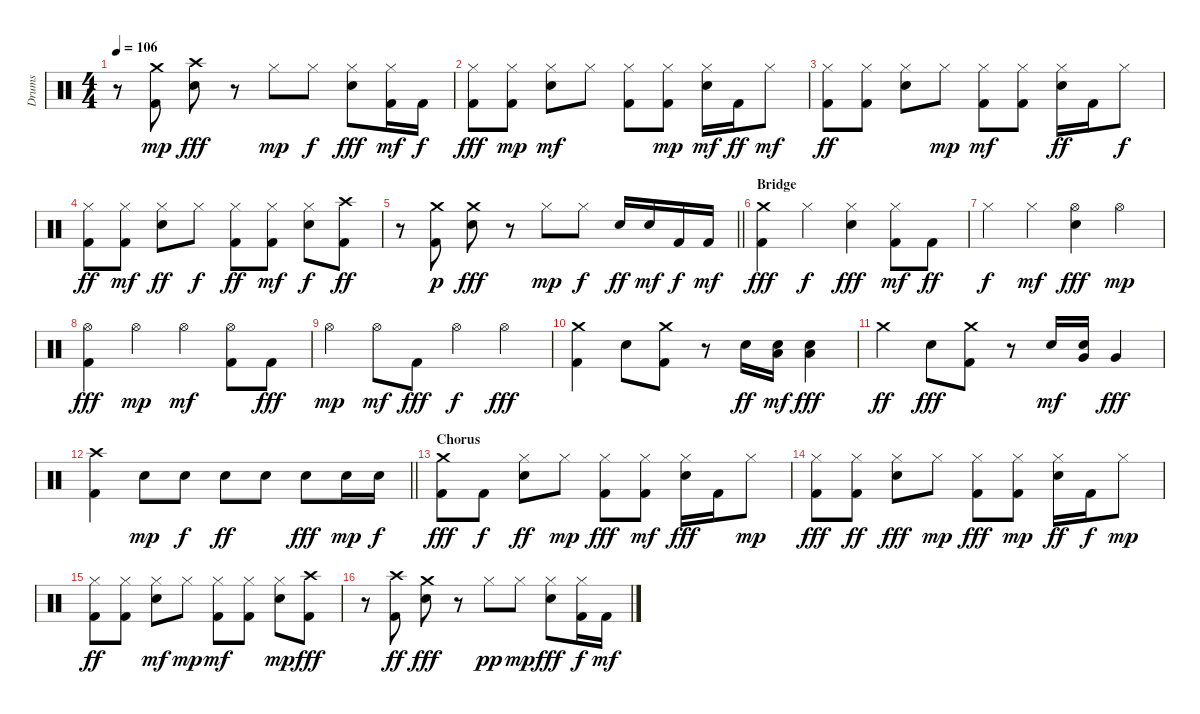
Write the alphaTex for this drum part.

\track ("Drums" "Drums") {instrument percussion}
\staff {score}
\articulation defaults
\ts (4 4)
\tempo 106
\clef neutral
\ks c
r.8{dy fff} ("Kick (hit) 2" "Crash medium (hit)").8{dy mp} ("Crash high (hit)" "Snare (hit) 2").8{dy fff} r.8 "Hi-Hat (closed)".8{dy mp} "Hi-Hat (closed)".8{dy f} ("Hi-Hat (closed)" "Snare (hit) 2").8{dy fff} ("Hi-Hat (closed)" "Kick (hit) 2").16{dy mf} "Kick (hit) 2".16{dy f} |
("Hi-Hat (closed)" "Kick (hit) 2").8{dy fff} ("Kick (hit) 2" "Hi-Hat (closed)").8{dy mp} ("Snare (hit) 2" "Hi-Hat (closed)").8{dy mf} "Hi-Hat (closed)".8 ("Kick (hit) 2" "Hi-Hat (closed)").8 ("Hi-Hat (closed)" "Kick (hit) 2").8{dy mp} ("Snare (hit) 2" "Hi-Hat (closed)").16{dy mf} "Kick (hit) 2".16{dy ff} "Hi-Hat (closed)".8{dy mf} |
("Hi-Hat (closed)" "Kick (hit) 2").8{dy ff} ("Hi-Hat (closed)" "Kick (hit) 2").8 ("Snare (hit) 2" "Hi-Hat (closed)").8 "Hi-Hat (closed)".8{dy mp} ("Kick (hit) 2" "Hi-Hat (closed)").8{dy mf} ("Kick (hit) 2" "Hi-Hat (closed)").8 ("Snare (hit) 2" "Hi-Hat (closed)").16{dy ff} "Kick (hit) 2".16 "Hi-Hat (closed)".8{dy f} |
("Kick (hit) 2" "Hi-Hat (closed)").8{dy ff} ("Kick (hit) 2" "Hi-Hat (closed)").8{dy mf} ("Snare (hit) 2" "Hi-Hat (closed)").8{dy ff} "Hi-Hat (closed)".8{dy f} ("Kick (hit) 2" "Hi-Hat (closed)").8{dy ff} ("Kick (hit) 2" "Hi-Hat (closed)").8{dy mf} ("Hi-Hat (closed)" "Snare (hit) 2").8{dy f} ("Kick (hit) 2" "Crash high (hit)").8{dy ff} |
\barLineRight lightlight
r.8 ("Kick (hit) 2" "Crash medium (hit)").8{dy p} ("Crash medium (hit)" "Snare (hit) 2").8{dy fff} r.8 "Hi-Hat (closed)".8{dy mp} "Hi-Hat (closed)".8{dy f} "Snare (hit) 2".16{dy ff} "Snare (hit) 2".16{dy mf} "Kick (hit) 2".16{dy f} "Kick (hit) 2".16{dy mf} |
\section ("" "Bridge")
("Crash medium (hit)" "Kick (hit) 2").4{dy fff} "Hi-Hat (closed)".4{dy f} ("Hi-Hat (closed)" "Snare (hit) 2").4{dy fff} ("Hi-Hat (closed)" "Kick (hit) 2").8{dy mf} "Kick (hit) 2".8{dy ff} |
"Hi-Hat (closed)".4{dy f} "Hi-Hat (closed)".4{dy mf} ("Hi-Hat (open)" "Snare (hit) 2").4{dy fff} "Hi-Hat (open)".4{dy mp} |
("Hi-Hat (open)" "Kick (hit) 2").4{dy fff} "Hi-Hat (open)".4{dy mp} "Hi-Hat (open)".4{dy mf} ("Hi-Hat (open)" "Kick (hit) 2").8 "Kick (hit) 2".8{dy fff} |
"Hi-Hat (open)".4{dy mp} "Hi-Hat (open)".8{dy mf} "Kick (hit) 2".8{dy fff} "Hi-Hat (open)".4{dy f} "Hi-Hat (open)".4{dy fff} |
("Crash medium (hit)" "Kick (hit) 2").4 "Snare (hit) 2".8 ("Crash medium (hit)" "Kick (hit) 2").8 r.8 "Snare (hit) 2".16{dy ff} ("Snare (hit) 2" "Low Floor Tom (hit)").16{dy mf} ("Snare (hit) 2" "Low Floor Tom (hit)").4{dy fff} |
"Crash medium (hit)".4{dy ff} "Snare (hit) 2".8{dy fff} ("Crash medium (hit)" "Kick (hit) 2").8 r.8 "Snare (hit) 2".16{dy mf} ("Snare (hit) 2" "Very Low Tom (hit)").16 "Very Low Tom (hit)".4{dy fff} |
\barLineRight lightlight
("Crash high (hit)" "Kick (hit) 2").4 "Snare (hit) 2".8{dy mp} "Snare (hit) 2".8{dy f} "Snare (hit) 2".8{dy ff} "Snare (hit) 2".8 "Snare (hit) 2".8{dy fff} "Snare (hit) 2".16{dy mp} "Snare (hit) 2".16{dy f} |
\section ("" "Chorus")
("Crash medium (hit)" "Kick (hit) 2").8{dy fff} "Kick (hit) 2".8{dy f} ("Hi-Hat (closed)" "Snare (hit) 2").8{dy ff} "Hi-Hat (closed)".8{dy mp} ("Hi-Hat (closed)" "Kick (hit) 2").8{dy fff} ("Hi-Hat (closed)" "Kick (hit) 2").8{dy mf} ("Hi-Hat (closed)" "Snare (hit) 2").16{dy fff} "Kick (hit) 2".16 "Hi-Hat (closed)".8{dy mp} |
("Hi-Hat (closed)" "Kick (hit) 2").8{dy fff} ("Hi-Hat (closed)" "Kick (hit) 2").8{dy ff} ("Hi-Hat (closed)" "Snare (hit) 2").8{dy fff} "Hi-Hat (closed)".8{dy mp} ("Hi-Hat (closed)" "Kick (hit) 2").8{dy fff} ("Kick (hit) 2" "Hi-Hat (closed)").8{dy mp} ("Hi-Hat (closed)" "Snare (hit) 2").16{dy ff} "Kick (hit) 2".16{dy f} "Hi-Hat (closed)".8{dy mp} |
("Hi-Hat (closed)" "Kick (hit) 2").8{dy ff} ("Hi-Hat (closed)" "Kick (hit) 2").8 ("Snare (hit) 2" "Hi-Hat (closed)").8{dy mf} "Hi-Hat (closed)".8{dy mp} ("Kick (hit) 2" "Hi-Hat (closed)").8{dy mf} ("Kick (hit) 2" "Hi-Hat (closed)").8 ("Snare (hit) 2" "Hi-Hat (closed)").8{dy mp} ("Crash high (hit)" "Kick (hit) 2").8{dy fff} |
r.8 ("Crash high (hit)" "Kick (hit) 2").8{dy ff} ("Crash medium (hit)" "Snare (hit) 2").8{dy fff} r.8 "Hi-Hat (closed)".8{dy pp} "Hi-Hat (closed)".8{dy mp} ("Hi-Hat (closed)" "Snare (hit) 2").8{dy fff} ("Kick (hit) 2" "Hi-Hat (closed)").16{dy f} "Kick (hit) 2".16{dy mf}
